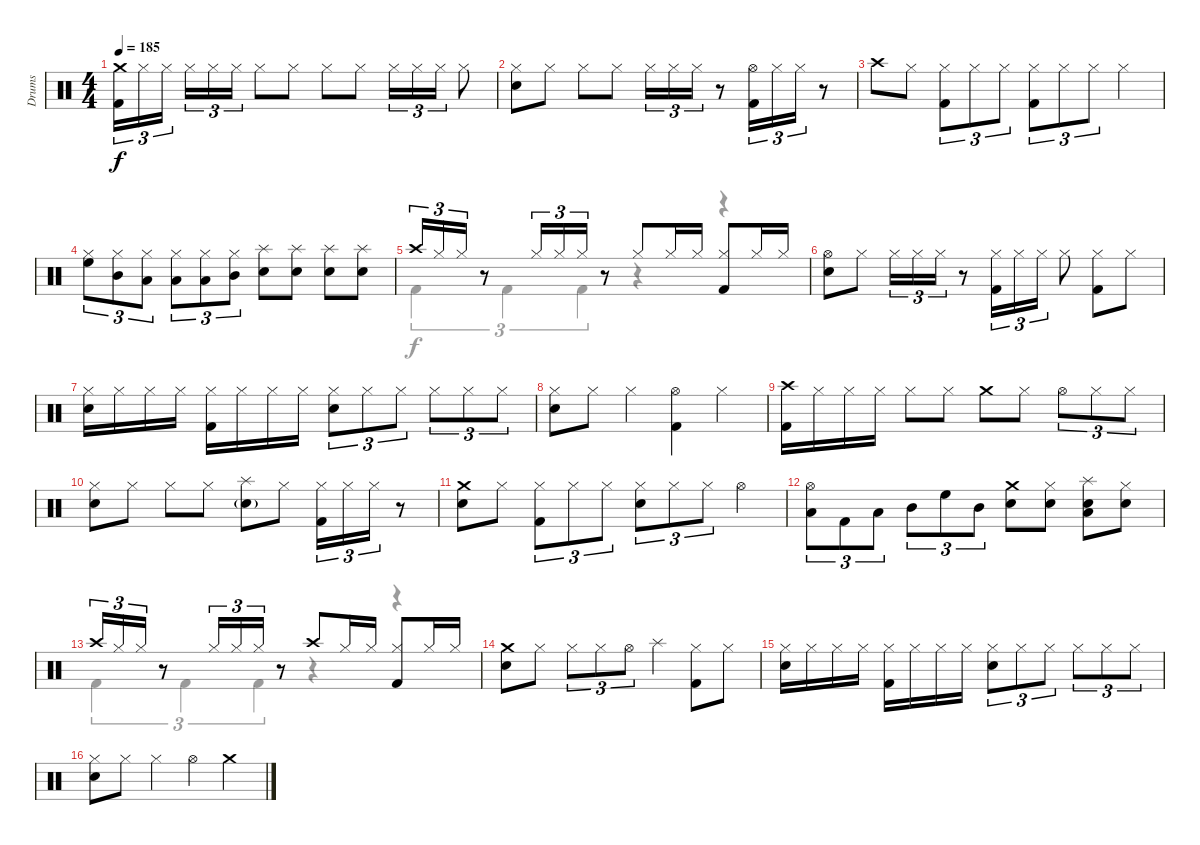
\track ("Drums" "Drums") {instrument percussion}
\staff {score}
\articulation defaults
\voice
\ts (4 4)
\tempo 185
\clef neutral
\ks c
("Crash medium (hit)" "Kick (hit) 2").16{tu (3 2) dy f} "Hi-Hat (closed)".16{tu (3 2)} "Hi-Hat (closed)".16{tu (3 2)} "Hi-Hat (closed)".16{tu (3 2)} "Hi-Hat (closed)".16{tu (3 2)} "Hi-Hat (closed)".16{tu (3 2)} "Hi-Hat (closed)".8 "Hi-Hat (closed)".8 "Hi-Hat (closed)".8 "Hi-Hat (closed)".8 "Hi-Hat (closed)".16{tu (3 2)} "Hi-Hat (closed)".16{tu (3 2)} "Hi-Hat (closed)".16{tu (3 2)} "Hi-Hat (closed)".8 |
("Hi-Hat (closed)" "Snare (hit) 2").8 "Hi-Hat (closed)".8 "Hi-Hat (closed)".8 "Hi-Hat (closed)".8 "Hi-Hat (closed)".16{tu (3 2)} "Hi-Hat (closed)".16{tu (3 2)} "Hi-Hat (closed)".16{tu (3 2)} r.8 ("Hi-Hat (open)" "Kick (hit) 2").16{tu (3 2)} "Hi-Hat (closed)".16{tu (3 2)} "Hi-Hat (closed)".16{tu (3 2)} r.8 |
"Crash high (hit)".8 "Hi-Hat (closed)".8 ("Hi-Hat (closed)" "Kick (hit) 2").8{tu (3 2)} "Hi-Hat (closed)".8{tu (3 2)} "Hi-Hat (closed)".8{tu (3 2)} ("Hi-Hat (closed)" "Kick (hit) 2").8{tu (3 2)} "Hi-Hat (closed)".8{tu (3 2)} "Hi-Hat (closed)".8{tu (3 2)} "Hi-Hat (closed)".4 |
("Hi-Hat (closed)" "High Floor Tom (hit)").8{tu (3 2)} ("Hi-Hat (closed)" "Mid Tom (hit)").8{tu (3 2)} ("Hi-Hat (closed)" "Low Tom (hit)").8{tu (3 2)} ("Hi-Hat (closed)" "Low Floor Tom (hit)").8{tu (3 2)} ("Hi-Hat (closed)" "Low Tom (hit)").8{tu (3 2)} ("Hi-Hat (closed)" "Mid Tom (hit)").8{tu (3 2)} ("Splash (hit)" "Snare (hit) 2").8 ("Splash (hit)" "Snare (hit) 2").8 ("Splash (hit)" "Snare (hit) 2").8 ("Splash (hit)" "Snare (hit) 2").8 |
"Crash high (hit)".16{tu (3 2)} "Hi-Hat (closed)".16{tu (3 2)} "Hi-Hat (closed)".16{tu (3 2)} r.8 "Hi-Hat (closed)".16{tu (3 2)} "Hi-Hat (closed)".16{tu (3 2)} "Hi-Hat (closed)".16{tu (3 2)} r.8 "Hi-Hat (closed)".8 "Hi-Hat (closed)".16 "Hi-Hat (closed)".16 ("Hi-Hat (closed)" "Kick (hit) 2").8 "Hi-Hat (closed)".16 "Hi-Hat (closed)".16 |
("Hi-Hat (open)" "Snare (hit) 2").8 "Hi-Hat (closed)".8 "Hi-Hat (closed)".16{tu (3 2)} "Hi-Hat (closed)".16{tu (3 2)} "Hi-Hat (closed)".16{tu (3 2)} r.8 ("Hi-Hat (closed)" "Kick (hit) 2").16{tu (3 2)} "Hi-Hat (closed)".16{tu (3 2)} "Hi-Hat (closed)".16{tu (3 2)} "Hi-Hat (closed)".8 ("Hi-Hat (closed)" "Kick (hit) 2").8 "Hi-Hat (closed)".8 |
("Hi-Hat (closed)" "Snare (hit) 2").16 "Hi-Hat (closed)".16 "Hi-Hat (closed)".16 "Hi-Hat (closed)".16 ("Hi-Hat (closed)" "Kick (hit) 2").16 "Hi-Hat (closed)".16 "Hi-Hat (closed)".16 "Hi-Hat (closed)".16 ("Hi-Hat (closed)" "Snare (hit) 2").8{tu (3 2)} "Hi-Hat (closed)".8{tu (3 2)} "Hi-Hat (closed)".8{tu (3 2)} "Hi-Hat (closed)".8{tu (3 2)} "Hi-Hat (closed)".8{tu (3 2)} "Hi-Hat (closed)".8{tu (3 2)} |
("Hi-Hat (closed)" "Snare (hit) 2").8 "Hi-Hat (closed)".8 "Hi-Hat (closed)".4 ("Hi-Hat (open)" "Kick (hit) 2").4 "Hi-Hat (closed)".4 |
("Crash high (hit)" "Kick (hit) 2").16 "Hi-Hat (closed)".16 "Hi-Hat (closed)".16 "Hi-Hat (closed)".16 "Hi-Hat (closed)".8 "Hi-Hat (closed)".8 "Crash medium (hit)".8 "Hi-Hat (closed)".8 "Hi-Hat (open)".8{tu (3 2)} "Hi-Hat (closed)".8{tu (3 2)} "Hi-Hat (closed)".8{tu (3 2)} |
("Hi-Hat (closed)" "Snare (hit) 2").8 "Hi-Hat (closed)".8 "Hi-Hat (closed)".8 "Hi-Hat (closed)".8 ("Splash (hit)" "Snare (hit) 2"{g}).8 "Hi-Hat (closed)".8 ("Hi-Hat (closed)" "Kick (hit) 2").16{tu (3 2)} "Hi-Hat (closed)".16{tu (3 2)} "Hi-Hat (closed)".16{tu (3 2)} r.8 |
("Crash medium (hit)" "Snare (hit) 2").8 "Hi-Hat (closed)".8 ("Hi-Hat (closed)" "Kick (hit) 2").8{tu (3 2)} "Hi-Hat (closed)".8{tu (3 2)} "Hi-Hat (closed)".8{tu (3 2)} ("Hi-Hat (closed)" "Snare (hit) 2").8{tu (3 2)} "Hi-Hat (closed)".8{tu (3 2)} "Hi-Hat (closed)".8{tu (3 2)} "Hi-Hat (open)".4 |
("Hi-Hat (open)" "Low Tom (hit)").8{tu (3 2)} "Kick (hit) 2".8{tu (3 2)} "Low Tom (hit)".8{tu (3 2)} "Mid Tom (hit)".8{tu (3 2)} "High Floor Tom (hit)".8{tu (3 2)} "Mid Tom (hit)".8{tu (3 2)} ("Crash medium (hit)" "Snare (hit) 2").8 ("Hi-Hat (closed)" "Snare (hit) 2").8 ("Splash (hit)" "Snare (hit) 2" "Low Tom (hit)").8 ("Hi-Hat (closed)" "Snare (hit) 2").8 |
"Crash high (hit)".16{tu (3 2)} "Hi-Hat (closed)".16{tu (3 2)} "Hi-Hat (closed)".16{tu (3 2)} r.8 "Hi-Hat (closed)".16{tu (3 2)} "Hi-Hat (closed)".16{tu (3 2)} "Hi-Hat (closed)".16{tu (3 2)} r.8 "Crash high (hit)".8 "Hi-Hat (closed)".16 "Hi-Hat (closed)".16 ("Hi-Hat (closed)" "Kick (hit) 2").8 "Hi-Hat (closed)".16 "Hi-Hat (closed)".16 |
("Crash medium (hit)" "Snare (hit) 2").8 "Hi-Hat (closed)".8 "Hi-Hat (closed)".8{tu (3 2)} "Hi-Hat (closed)".8{tu (3 2)} "Hi-Hat (open)".8{tu (3 2)} "Splash (hit)".4 ("Hi-Hat (closed)" "Kick (hit) 2").8 "Hi-Hat (closed)".8 |
("Hi-Hat (closed)" "Snare (hit) 2").16 "Hi-Hat (closed)".16 "Hi-Hat (closed)".16 "Hi-Hat (closed)".16 ("Hi-Hat (closed)" "Kick (hit) 2").16 "Hi-Hat (closed)".16 "Hi-Hat (closed)".16 "Hi-Hat (closed)".16 ("Hi-Hat (closed)" "Snare (hit) 2").8{tu (3 2)} "Hi-Hat (closed)".8{tu (3 2)} "Hi-Hat (closed)".8{tu (3 2)} "Hi-Hat (closed)".8{tu (3 2)} "Hi-Hat (closed)".8{tu (3 2)} "Hi-Hat (closed)".8{tu (3 2)} |
("Hi-Hat (closed)" "Snare (hit) 2").8 "Hi-Hat (closed)".8 "Hi-Hat (closed)".4 "Hi-Hat (open)".4 "Crash medium (hit)".4
\voice
\clef neutral
\ottava regular
\simile none
\ks c
|
|
|
|
"Kick (hit) 2".4{tu (3 2)} "Kick (hit) 2".4{tu (3 2)} "Kick (hit) 2".4{tu (3 2)} r.4 r.4 |
|
|
|
|
|
|
|
"Kick (hit) 2".4{tu (3 2)} "Kick (hit) 2".4{tu (3 2)} "Kick (hit) 2".4{tu (3 2)} r.4 r.4 |
|
|
